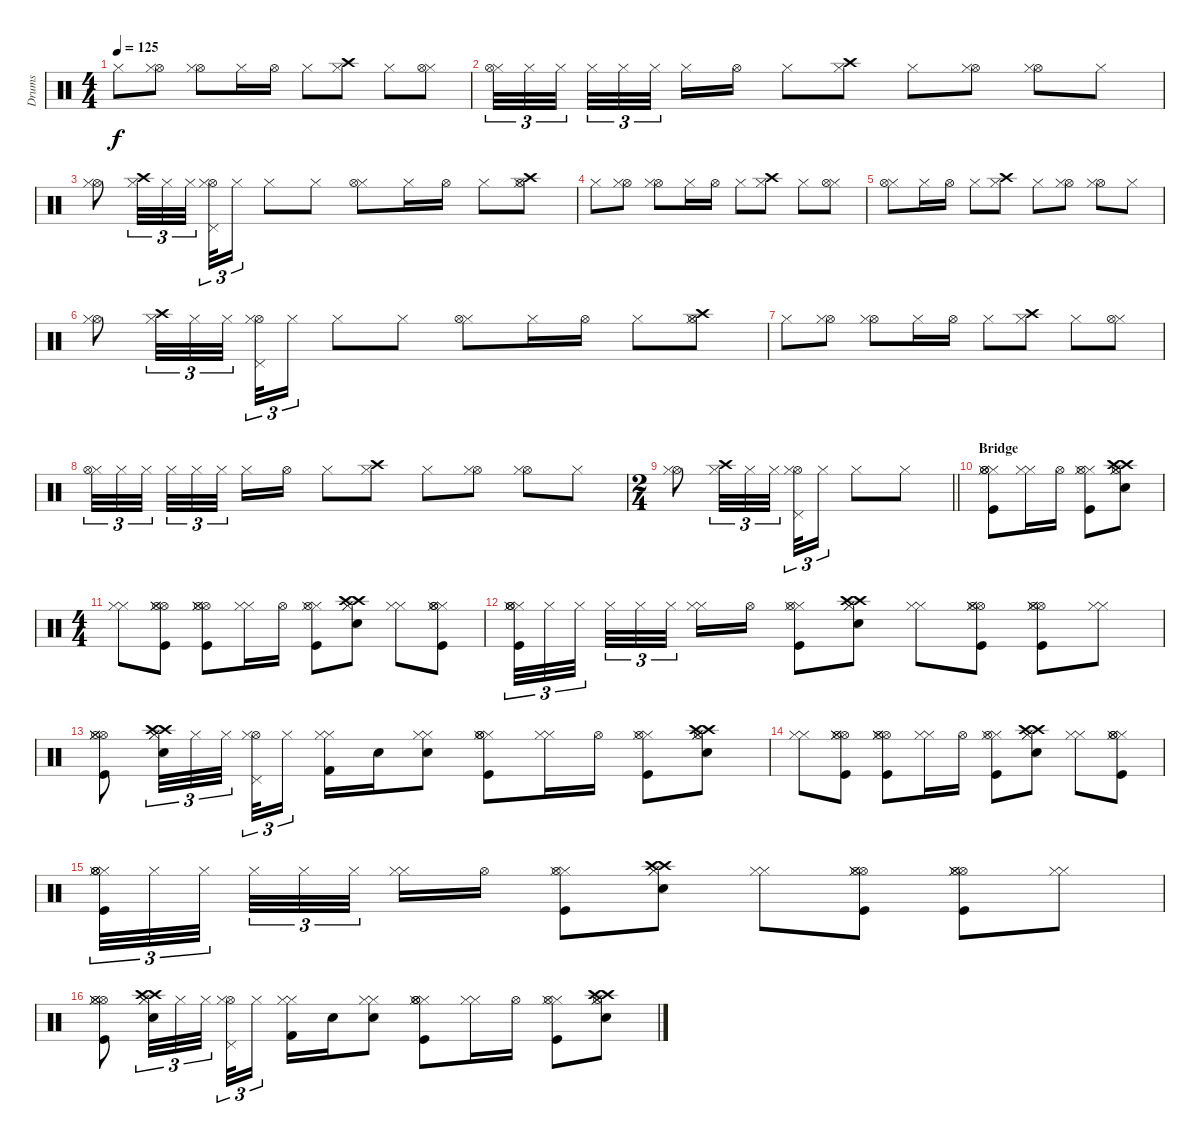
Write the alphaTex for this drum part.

\track ("Drums" "Drums") {instrument percussion}
\staff {score}
\articulation defaults
\ts (4 4)
\tempo 125
\clef neutral
\ks c "Hi-Hat (closed)".8{dy f}
("Hi-Hat (open)" "Hi-Hat (closed)").8 ("Hi-Hat (open)" "Hi-Hat (closed)").8 "Hi-Hat (closed)".16 "Hi-Hat (open)".16 "Hi-Hat (closed)".8 ("Crash high (hit)" "Hi-Hat (closed)").8 "Hi-Hat (closed)".8 ("Hi-Hat (closed)" "Hi-Hat (open)").8 |
("Hi-Hat (closed)" "Hi-Hat (open)").32{tu (3 2)} "Hi-Hat (closed)".32{tu (3 2)} "Hi-Hat (closed)".32{tu (3 2) beam splitsecondary} "Hi-Hat (closed)".32{tu (3 2)} "Hi-Hat (closed)".32{tu (3 2)} "Hi-Hat (closed)".32{tu (3 2) beam splitsecondary} "Hi-Hat (closed)".16 "Hi-Hat (open)".16 "Hi-Hat (closed)".8 ("Crash high (hit)" "Hi-Hat (closed)").8 "Hi-Hat (closed)".8 ("Hi-Hat (open)" "Hi-Hat (closed)").8 ("Hi-Hat (open)" "Hi-Hat (closed)").8 "Hi-Hat (closed)".8 |
("Hi-Hat (open)" "Hi-Hat (closed)").8 ("Crash high (hit)" "Hi-Hat (closed)").32{tu (3 2)} "Hi-Hat (closed)".32{tu (3 2)} "Hi-Hat (closed)".32{tu (3 2) beam splitsecondary} ("Hi-Hat (open)" "Hi-Hat (closed)" "Pedal Hi-Hat (hit)").32{tu (3 2)} "Hi-Hat (closed)".16{tu (3 2)} "Hi-Hat (closed)".8 "Hi-Hat (closed)".8 ("Hi-Hat (closed)" "Hi-Hat (open)").8 "Hi-Hat (closed)".16 "Hi-Hat (open)".16 "Hi-Hat (closed)".8 ("Crash high (hit)" "Hi-Hat (closed)" "Hi-Hat (open)").8 |
"Hi-Hat (closed)".8 ("Hi-Hat (open)" "Hi-Hat (closed)").8 ("Hi-Hat (open)" "Hi-Hat (closed)").8 "Hi-Hat (closed)".16 "Hi-Hat (open)".16 "Hi-Hat (closed)".8 ("Crash high (hit)" "Hi-Hat (closed)").8 "Hi-Hat (closed)".8 ("Hi-Hat (closed)" "Hi-Hat (open)").8 |
("Hi-Hat (closed)" "Hi-Hat (open)").8 "Hi-Hat (closed)".16 "Hi-Hat (open)".16 "Hi-Hat (closed)".8 ("Crash high (hit)" "Hi-Hat (closed)").8 "Hi-Hat (closed)".8 ("Hi-Hat (open)" "Hi-Hat (closed)").8 ("Hi-Hat (open)" "Hi-Hat (closed)").8 "Hi-Hat (closed)".8 |
("Hi-Hat (open)" "Hi-Hat (closed)").8 ("Crash high (hit)" "Hi-Hat (closed)").32{tu (3 2)} "Hi-Hat (closed)".32{tu (3 2)} "Hi-Hat (closed)".32{tu (3 2) beam splitsecondary} ("Hi-Hat (open)" "Hi-Hat (closed)" "Pedal Hi-Hat (hit)").32{tu (3 2)} "Hi-Hat (closed)".16{tu (3 2)} "Hi-Hat (closed)".8 "Hi-Hat (closed)".8 ("Hi-Hat (closed)" "Hi-Hat (open)").8 "Hi-Hat (closed)".16 "Hi-Hat (open)".16 "Hi-Hat (closed)".8 ("Crash high (hit)" "Hi-Hat (closed)" "Hi-Hat (open)").8 |
"Hi-Hat (closed)".8 ("Hi-Hat (open)" "Hi-Hat (closed)").8 ("Hi-Hat (open)" "Hi-Hat (closed)").8 "Hi-Hat (closed)".16 "Hi-Hat (open)".16 "Hi-Hat (closed)".8 ("Crash high (hit)" "Hi-Hat (closed)").8 "Hi-Hat (closed)".8 ("Hi-Hat (closed)" "Hi-Hat (open)").8 |
("Hi-Hat (closed)" "Hi-Hat (open)").32{tu (3 2)} "Hi-Hat (closed)".32{tu (3 2)} "Hi-Hat (closed)".32{tu (3 2) beam splitsecondary} "Hi-Hat (closed)".32{tu (3 2)} "Hi-Hat (closed)".32{tu (3 2)} "Hi-Hat (closed)".32{tu (3 2) beam splitsecondary} "Hi-Hat (closed)".16 "Hi-Hat (open)".16 "Hi-Hat (closed)".8 ("Crash high (hit)" "Hi-Hat (closed)").8 "Hi-Hat (closed)".8 ("Hi-Hat (open)" "Hi-Hat (closed)").8 ("Hi-Hat (open)" "Hi-Hat (closed)").8 "Hi-Hat (closed)".8 |
\ts (2 4)
\barLineRight lightlight
("Hi-Hat (open)" "Hi-Hat (closed)").8 ("Crash high (hit)" "Hi-Hat (closed)").32{tu (3 2)} "Hi-Hat (closed)".32{tu (3 2)} "Hi-Hat (closed)".32{tu (3 2) beam splitsecondary} ("Hi-Hat (open)" "Hi-Hat (closed)" "Pedal Hi-Hat (hit)").32{tu (3 2)} "Hi-Hat (closed)".16{tu (3 2)} "Hi-Hat (closed)".8 "Hi-Hat (closed)".8 |
\section ("" "Bridge")
("Hi-Hat (closed)" "Hi-Hat (open)" "Hi-Hat (closed)" "Hi-Hat (open)" "Kick (hit)").8 ("Hi-Hat (closed)" "Hi-Hat (closed)").16 "Hi-Hat (open)".16 ("Hi-Hat (closed)" "Hi-Hat (open)" "Kick (hit)" "Hi-Hat (closed)").8 ("Crash high (hit)" "Hi-Hat (closed)" "Hi-Hat (open)" "Electric Snare (hit)" "Crash high (hit)" "Hi-Hat (closed)").8 |
\ts (4 4)
("Hi-Hat (closed)" "Hi-Hat (closed)").8 ("Hi-Hat (open)" "Hi-Hat (closed)" "Kick (hit)" "Hi-Hat (open)" "Hi-Hat (closed)").8 ("Hi-Hat (open)" "Hi-Hat (closed)" "Hi-Hat (open)" "Kick (hit)" "Hi-Hat (closed)").8 ("Hi-Hat (closed)" "Hi-Hat (closed)").16 "Hi-Hat (open)".16 ("Hi-Hat (closed)" "Hi-Hat (open)" "Kick (hit)" "Hi-Hat (closed)").8 ("Crash high (hit)" "Hi-Hat (closed)" "Crash high (hit)" "Electric Snare (hit)" "Hi-Hat (closed)").8 ("Hi-Hat (closed)" "Hi-Hat (closed)").8 ("Hi-Hat (closed)" "Hi-Hat (open)" "Kick (hit)" "Hi-Hat (closed)" "Hi-Hat (open)").8 |
("Hi-Hat (closed)" "Hi-Hat (open)" "Hi-Hat (closed)" "Hi-Hat (open)" "Kick (hit)").32{tu (3 2)} "Hi-Hat (closed)".32{tu (3 2)} "Hi-Hat (closed)".32{tu (3 2) beam splitsecondary} "Hi-Hat (closed)".32{tu (3 2)} "Hi-Hat (closed)".32{tu (3 2)} "Hi-Hat (closed)".32{tu (3 2) beam splitsecondary} ("Hi-Hat (closed)" "Hi-Hat (closed)").16 "Hi-Hat (open)".16 ("Hi-Hat (closed)" "Hi-Hat (open)" "Kick (hit)" "Hi-Hat (closed)").8 ("Crash high (hit)" "Hi-Hat (closed)" "Crash high (hit)" "Hi-Hat (closed)" "Electric Snare (hit)").8 ("Hi-Hat (closed)" "Hi-Hat (closed)").8 ("Hi-Hat (open)" "Hi-Hat (closed)" "Kick (hit)" "Hi-Hat (open)" "Hi-Hat (closed)").8 ("Hi-Hat (open)" "Hi-Hat (closed)" "Hi-Hat (open)" "Kick (hit)" "Hi-Hat (closed)").8 ("Hi-Hat (closed)" "Hi-Hat (closed)").8 |
("Hi-Hat (open)" "Hi-Hat (closed)" "Kick (hit)" "Hi-Hat (open)" "Hi-Hat (closed)").8 ("Crash high (hit)" "Hi-Hat (closed)" "Electric Snare (hit)" "Crash high (hit)" "Hi-Hat (closed)").32{tu (3 2)} "Hi-Hat (closed)".32{tu (3 2)} "Hi-Hat (closed)".32{tu (3 2) beam splitsecondary} ("Hi-Hat (open)" "Hi-Hat (closed)" "Pedal Hi-Hat (hit)").32{tu (3 2)} "Hi-Hat (closed)".16{tu (3 2)} ("Hi-Hat (closed)" "Kick (hit) 2" "Hi-Hat (closed)").16 "Electric Snare (hit)".16 ("Hi-Hat (closed)" "Electric Snare (hit)" "Hi-Hat (closed)").8 ("Hi-Hat (closed)" "Hi-Hat (open)" "Hi-Hat (closed)" "Hi-Hat (open)" "Kick (hit)").8 ("Hi-Hat (closed)" "Hi-Hat (closed)").16 "Hi-Hat (open)".16 ("Hi-Hat (closed)" "Hi-Hat (open)" "Kick (hit)" "Hi-Hat (closed)").8 ("Crash high (hit)" "Hi-Hat (closed)" "Hi-Hat (open)" "Electric Snare (hit)" "Crash high (hit)" "Hi-Hat (closed)").8 |
("Hi-Hat (closed)" "Hi-Hat (closed)").8 ("Hi-Hat (open)" "Hi-Hat (closed)" "Kick (hit)" "Hi-Hat (open)" "Hi-Hat (closed)").8 ("Hi-Hat (open)" "Hi-Hat (closed)" "Hi-Hat (open)" "Kick (hit)" "Hi-Hat (closed)").8 ("Hi-Hat (closed)" "Hi-Hat (closed)").16 "Hi-Hat (open)".16 ("Hi-Hat (closed)" "Hi-Hat (open)" "Kick (hit)" "Hi-Hat (closed)").8 ("Crash high (hit)" "Hi-Hat (closed)" "Crash high (hit)" "Electric Snare (hit)" "Hi-Hat (closed)").8 ("Hi-Hat (closed)" "Hi-Hat (closed)").8 ("Hi-Hat (closed)" "Hi-Hat (open)" "Kick (hit)" "Hi-Hat (closed)" "Hi-Hat (open)").8 |
("Hi-Hat (closed)" "Hi-Hat (open)" "Hi-Hat (closed)" "Hi-Hat (open)" "Kick (hit)").32{tu (3 2)} "Hi-Hat (closed)".32{tu (3 2)} "Hi-Hat (closed)".32{tu (3 2) beam splitsecondary} "Hi-Hat (closed)".32{tu (3 2)} "Hi-Hat (closed)".32{tu (3 2)} "Hi-Hat (closed)".32{tu (3 2) beam splitsecondary} ("Hi-Hat (closed)" "Hi-Hat (closed)").16 "Hi-Hat (open)".16 ("Hi-Hat (closed)" "Hi-Hat (open)" "Kick (hit)" "Hi-Hat (closed)").8 ("Crash high (hit)" "Hi-Hat (closed)" "Crash high (hit)" "Hi-Hat (closed)" "Electric Snare (hit)").8 ("Hi-Hat (closed)" "Hi-Hat (closed)").8 ("Hi-Hat (open)" "Hi-Hat (closed)" "Kick (hit)" "Hi-Hat (open)" "Hi-Hat (closed)").8 ("Hi-Hat (open)" "Hi-Hat (closed)" "Hi-Hat (open)" "Kick (hit)" "Hi-Hat (closed)").8 ("Hi-Hat (closed)" "Hi-Hat (closed)").8 |
("Hi-Hat (open)" "Hi-Hat (closed)" "Kick (hit)" "Hi-Hat (open)" "Hi-Hat (closed)").8 ("Crash high (hit)" "Hi-Hat (closed)" "Electric Snare (hit)" "Crash high (hit)" "Hi-Hat (closed)").32{tu (3 2)} "Hi-Hat (closed)".32{tu (3 2)} "Hi-Hat (closed)".32{tu (3 2) beam splitsecondary} ("Hi-Hat (open)" "Hi-Hat (closed)" "Pedal Hi-Hat (hit)").32{tu (3 2)} "Hi-Hat (closed)".16{tu (3 2)} ("Hi-Hat (closed)" "Kick (hit) 2" "Hi-Hat (closed)").16 "Electric Snare (hit)".16 ("Hi-Hat (closed)" "Electric Snare (hit)" "Hi-Hat (closed)").8 ("Hi-Hat (closed)" "Hi-Hat (open)" "Hi-Hat (closed)" "Hi-Hat (open)" "Kick (hit)").8 ("Hi-Hat (closed)" "Hi-Hat (closed)").16 "Hi-Hat (open)".16 ("Hi-Hat (closed)" "Hi-Hat (open)" "Kick (hit)" "Hi-Hat (closed)").8 ("Crash high (hit)" "Hi-Hat (closed)" "Hi-Hat (open)" "Electric Snare (hit)" "Crash high (hit)" "Hi-Hat (closed)").8
